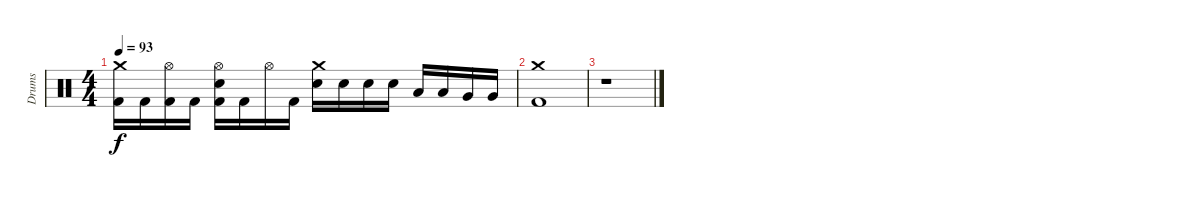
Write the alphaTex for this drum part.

\track ("Drums" "Drums") {instrument percussion}
\staff {score}
\articulation defaults
\ts (4 4)
\tempo 93
\clef neutral
\ks c
("Crash medium (hit)" "Kick (hit) 2").16{dy f} "Kick (hit) 2".16 ("Hi-Hat (open)" "Kick (hit) 2").16 "Kick (hit) 2".16 ("Hi-Hat (open)" "Electric Snare (hit)" "Kick (hit) 2").16 "Kick (hit) 2".16 "Hi-Hat (open)".16 "Kick (hit) 2".16 ("Crash medium (hit)" "Electric Snare (hit)").16 "Electric Snare (hit)".16 "Electric Snare (hit)".16 "Electric Snare (hit)".16 "Low Tom (hit)".16 "Low Tom (hit)".16 "Very Low Tom (hit)".16 "Very Low Tom (hit)".16 |
("Crash medium (hit)" "Kick (hit) 2").1 |
r.1
